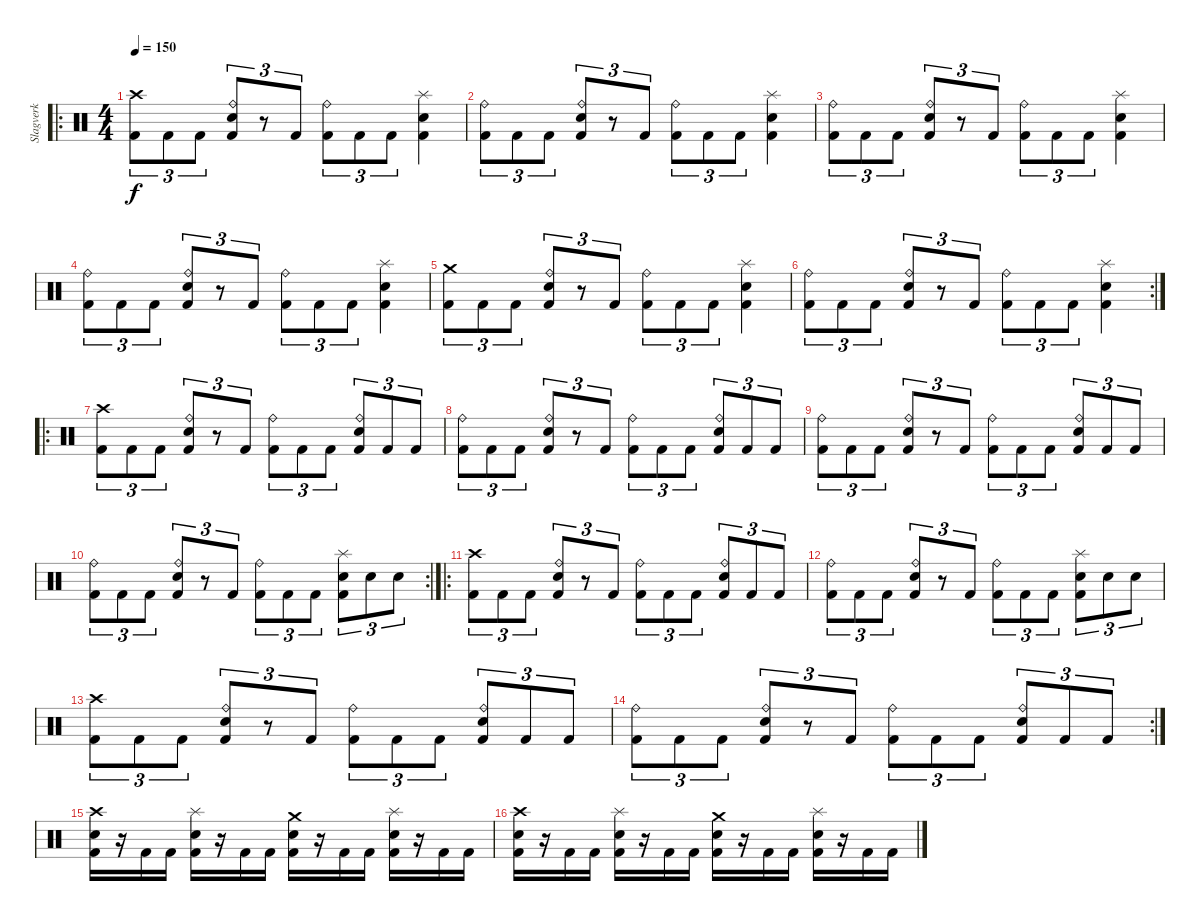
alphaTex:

\track ("Slagverk" "Slagverk") {instrument percussion}
\staff {score}
\articulation defaults
\ro
\ts (4 4)
\tempo 150
\clef neutral
\ks c
("Crash high (hit)" "Kick (hit) 2").8{tu (3 2) dy f} "Kick (hit) 2".8{tu (3 2)} "Kick (hit) 2".8{tu (3 2)} ("Ride (bell)" "Snare (hit) 2" "Kick (hit) 2").8{tu (3 2)} r.8{tu (3 2)} "Kick (hit) 2".8{tu (3 2)} ("Ride (bell)" "Kick (hit) 2").8{tu (3 2)} "Kick (hit) 2".8{tu (3 2)} "Kick (hit) 2".8{tu (3 2)} ("Splash (hit)" "Snare (hit) 2" "Kick (hit) 2").4 |
("Ride (bell)" "Kick (hit) 2").8{tu (3 2)} "Kick (hit) 2".8{tu (3 2)} "Kick (hit) 2".8{tu (3 2)} ("Ride (bell)" "Snare (hit) 2" "Kick (hit) 2").8{tu (3 2)} r.8{tu (3 2)} "Kick (hit) 2".8{tu (3 2)} ("Ride (bell)" "Kick (hit) 2").8{tu (3 2)} "Kick (hit) 2".8{tu (3 2)} "Kick (hit) 2".8{tu (3 2)} ("Splash (hit)" "Snare (hit) 2" "Kick (hit) 2").4 |
("Ride (bell)" "Kick (hit) 2").8{tu (3 2)} "Kick (hit) 2".8{tu (3 2)} "Kick (hit) 2".8{tu (3 2)} ("Ride (bell)" "Snare (hit) 2" "Kick (hit) 2").8{tu (3 2)} r.8{tu (3 2)} "Kick (hit) 2".8{tu (3 2)} ("Ride (bell)" "Kick (hit) 2").8{tu (3 2)} "Kick (hit) 2".8{tu (3 2)} "Kick (hit) 2".8{tu (3 2)} ("Splash (hit)" "Snare (hit) 2" "Kick (hit) 2").4 |
("Ride (bell)" "Kick (hit) 2").8{tu (3 2)} "Kick (hit) 2".8{tu (3 2)} "Kick (hit) 2".8{tu (3 2)} ("Ride (bell)" "Snare (hit) 2" "Kick (hit) 2").8{tu (3 2)} r.8{tu (3 2)} "Kick (hit) 2".8{tu (3 2)} ("Ride (bell)" "Kick (hit) 2").8{tu (3 2)} "Kick (hit) 2".8{tu (3 2)} "Kick (hit) 2".8{tu (3 2)} ("Splash (hit)" "Snare (hit) 2" "Kick (hit) 2").4 |
("Crash medium (hit)" "Kick (hit) 2").8{tu (3 2)} "Kick (hit) 2".8{tu (3 2)} "Kick (hit) 2".8{tu (3 2)} ("Ride (bell)" "Snare (hit) 2" "Kick (hit) 2").8{tu (3 2)} r.8{tu (3 2)} "Kick (hit) 2".8{tu (3 2)} ("Ride (bell)" "Kick (hit) 2").8{tu (3 2)} "Kick (hit) 2".8{tu (3 2)} "Kick (hit) 2".8{tu (3 2)} ("Splash (hit)" "Snare (hit) 2" "Kick (hit) 2").4 |
\rc 2
("Ride (bell)" "Kick (hit) 2").8{tu (3 2)} "Kick (hit) 2".8{tu (3 2)} "Kick (hit) 2".8{tu (3 2)} ("Ride (bell)" "Snare (hit) 2" "Kick (hit) 2").8{tu (3 2)} r.8{tu (3 2)} "Kick (hit) 2".8{tu (3 2)} ("Ride (bell)" "Kick (hit) 2").8{tu (3 2)} "Kick (hit) 2".8{tu (3 2)} "Kick (hit) 2".8{tu (3 2)} ("Splash (hit)" "Snare (hit) 2" "Kick (hit) 2").4 |
\ro
("Crash high (hit)" "Kick (hit) 2").8{tu (3 2)} "Kick (hit) 2".8{tu (3 2)} "Kick (hit) 2".8{tu (3 2)} ("Ride (bell)" "Snare (hit) 2" "Kick (hit) 2").8{tu (3 2)} r.8{tu (3 2)} "Kick (hit) 2".8{tu (3 2)} ("Ride (bell)" "Kick (hit) 2").8{tu (3 2)} "Kick (hit) 2".8{tu (3 2)} "Kick (hit) 2".8{tu (3 2)} ("Ride (bell)" "Snare (hit) 2" "Kick (hit) 2").8{tu (3 2)} "Kick (hit) 2".8{tu (3 2)} "Kick (hit) 2".8{tu (3 2)} |
("Ride (bell)" "Kick (hit) 2").8{tu (3 2)} "Kick (hit) 2".8{tu (3 2)} "Kick (hit) 2".8{tu (3 2)} ("Ride (bell)" "Snare (hit) 2" "Kick (hit) 2").8{tu (3 2)} r.8{tu (3 2)} "Kick (hit) 2".8{tu (3 2)} ("Ride (bell)" "Kick (hit) 2").8{tu (3 2)} "Kick (hit) 2".8{tu (3 2)} "Kick (hit) 2".8{tu (3 2)} ("Ride (bell)" "Snare (hit) 2" "Kick (hit) 2").8{tu (3 2)} "Kick (hit) 2".8{tu (3 2)} "Kick (hit) 2".8{tu (3 2)} |
("Ride (bell)" "Kick (hit) 2").8{tu (3 2)} "Kick (hit) 2".8{tu (3 2)} "Kick (hit) 2".8{tu (3 2)} ("Ride (bell)" "Snare (hit) 2" "Kick (hit) 2").8{tu (3 2)} r.8{tu (3 2)} "Kick (hit) 2".8{tu (3 2)} ("Ride (bell)" "Kick (hit) 2").8{tu (3 2)} "Kick (hit) 2".8{tu (3 2)} "Kick (hit) 2".8{tu (3 2)} ("Ride (bell)" "Snare (hit) 2" "Kick (hit) 2").8{tu (3 2)} "Kick (hit) 2".8{tu (3 2)} "Kick (hit) 2".8{tu (3 2)} |
\rc 2
("Ride (bell)" "Kick (hit) 2").8{tu (3 2)} "Kick (hit) 2".8{tu (3 2)} "Kick (hit) 2".8{tu (3 2)} ("Ride (bell)" "Snare (hit) 2" "Kick (hit) 2").8{tu (3 2)} r.8{tu (3 2)} "Kick (hit) 2".8{tu (3 2)} ("Ride (bell)" "Kick (hit) 2").8{tu (3 2)} "Kick (hit) 2".8{tu (3 2)} "Kick (hit) 2".8{tu (3 2)} ("Splash (hit)" "Snare (hit) 2" "Kick (hit) 2").8{tu (3 2)} "Snare (hit) 2".8{tu (3 2)} "Snare (hit) 2".8{tu (3 2)} |
\ro
("Crash high (hit)" "Kick (hit) 2").8{tu (3 2)} "Kick (hit) 2".8{tu (3 2)} "Kick (hit) 2".8{tu (3 2)} ("Ride (bell)" "Snare (hit) 2" "Kick (hit) 2").8{tu (3 2)} r.8{tu (3 2)} "Kick (hit) 2".8{tu (3 2)} ("Ride (bell)" "Kick (hit) 2").8{tu (3 2)} "Kick (hit) 2".8{tu (3 2)} "Kick (hit) 2".8{tu (3 2)} ("Ride (bell)" "Snare (hit) 2" "Kick (hit) 2").8{tu (3 2)} "Kick (hit) 2".8{tu (3 2)} "Kick (hit) 2".8{tu (3 2)} |
("Ride (bell)" "Kick (hit) 2").8{tu (3 2)} "Kick (hit) 2".8{tu (3 2)} "Kick (hit) 2".8{tu (3 2)} ("Ride (bell)" "Snare (hit) 2" "Kick (hit) 2").8{tu (3 2)} r.8{tu (3 2)} "Kick (hit) 2".8{tu (3 2)} ("Ride (bell)" "Kick (hit) 2").8{tu (3 2)} "Kick (hit) 2".8{tu (3 2)} "Kick (hit) 2".8{tu (3 2)} ("Splash (hit)" "Snare (hit) 2" "Kick (hit) 2").8{tu (3 2)} "Snare (hit) 2".8{tu (3 2)} "Snare (hit) 2".8{tu (3 2)} |
("Crash high (hit)" "Kick (hit) 2").8{tu (3 2)} "Kick (hit) 2".8{tu (3 2)} "Kick (hit) 2".8{tu (3 2)} ("Ride (bell)" "Snare (hit) 2" "Kick (hit) 2").8{tu (3 2)} r.8{tu (3 2)} "Kick (hit) 2".8{tu (3 2)} ("Ride (bell)" "Kick (hit) 2").8{tu (3 2)} "Kick (hit) 2".8{tu (3 2)} "Kick (hit) 2".8{tu (3 2)} ("Ride (bell)" "Snare (hit) 2" "Kick (hit) 2").8{tu (3 2)} "Kick (hit) 2".8{tu (3 2)} "Kick (hit) 2".8{tu (3 2)} |
\rc 2
("Ride (bell)" "Kick (hit) 2").8{tu (3 2)} "Kick (hit) 2".8{tu (3 2)} "Kick (hit) 2".8{tu (3 2)} ("Ride (bell)" "Snare (hit) 2" "Kick (hit) 2").8{tu (3 2)} r.8{tu (3 2)} "Kick (hit) 2".8{tu (3 2)} ("Ride (bell)" "Kick (hit) 2").8{tu (3 2)} "Kick (hit) 2".8{tu (3 2)} "Kick (hit) 2".8{tu (3 2)} ("Ride (bell)" "Snare (hit) 2" "Kick (hit) 2").8{tu (3 2)} "Kick (hit) 2".8{tu (3 2)} "Kick (hit) 2".8{tu (3 2)} |
("Crash high (hit)" "Snare (hit) 2" "Kick (hit) 2").16 r.16 "Kick (hit) 2".16 "Kick (hit) 2".16 ("Splash (hit)" "Snare (hit) 2" "Kick (hit) 2").16 r.16 "Kick (hit) 2".16 "Kick (hit) 2".16 ("Crash medium (hit)" "Snare (hit) 2" "Kick (hit) 2").16 r.16 "Kick (hit) 2".16 "Kick (hit) 2".16 ("Splash (hit)" "Snare (hit) 2" "Kick (hit) 2").16 r.16 "Kick (hit) 2".16 "Kick (hit) 2".16 |
("Crash high (hit)" "Snare (hit) 2" "Kick (hit) 2").16 r.16 "Kick (hit) 2".16 "Kick (hit) 2".16 ("Splash (hit)" "Snare (hit) 2" "Kick (hit) 2").16 r.16 "Kick (hit) 2".16 "Kick (hit) 2".16 ("Crash medium (hit)" "Snare (hit) 2" "Kick (hit) 2").16 r.16 "Kick (hit) 2".16 "Kick (hit) 2".16 ("Splash (hit)" "Snare (hit) 2" "Kick (hit) 2").16 r.16 "Kick (hit) 2".16 "Kick (hit) 2".16
